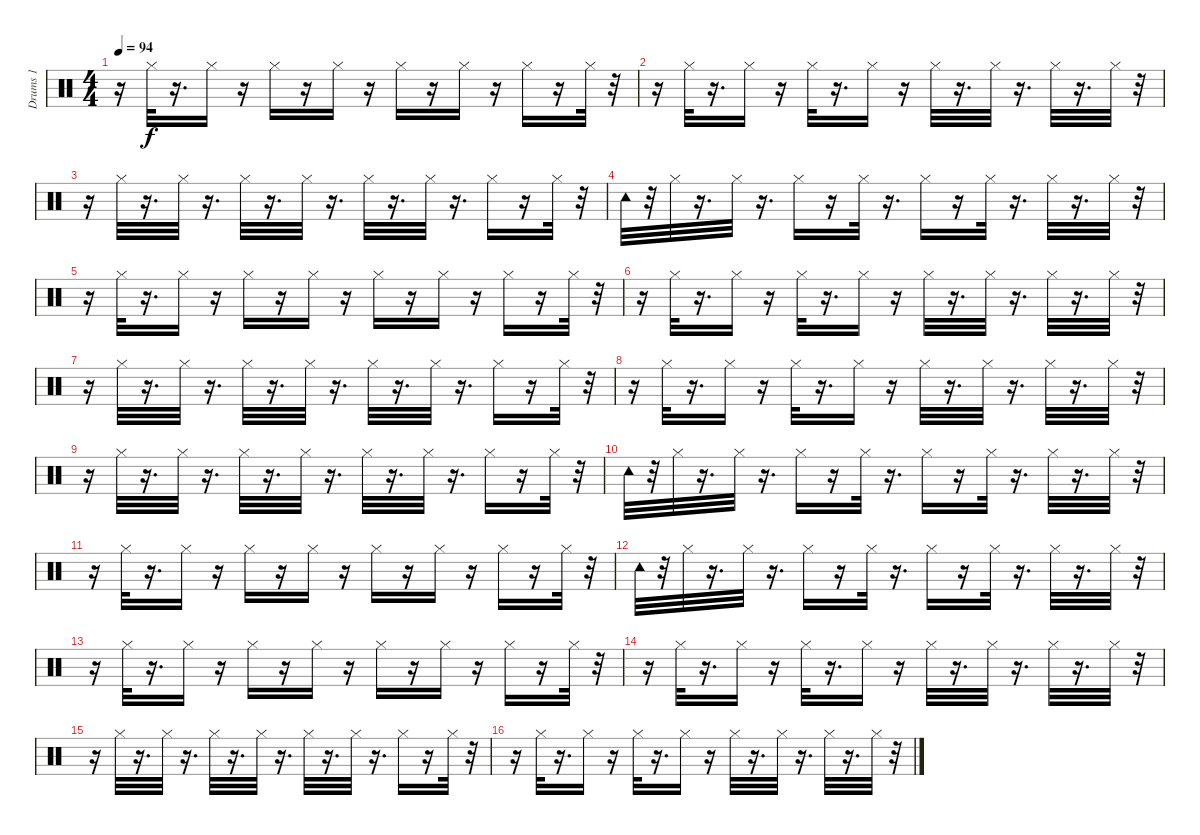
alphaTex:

\track ("Drums 1 " "Drums 1 ") {instrument percussion}
\staff {score}
\articulation defaults
\ts (4 4)
\tempo 94
\clef neutral
\ks c
r.16{dy f} "Hi-Hat (closed)".32 r.16{d} "Hi-Hat (closed)".16 r.16 "Hi-Hat (closed)".16 r.16 "Hi-Hat (closed)".16 r.16 "Hi-Hat (closed)".16 r.16 "Hi-Hat (closed)".16 r.16 "Hi-Hat (closed)".16 r.16 "Hi-Hat (closed)".32 r.32 |
r.16 "Hi-Hat (closed)".32 r.16{d} "Hi-Hat (closed)".16 r.16 "Hi-Hat (closed)".32 r.16{d} "Hi-Hat (closed)".16 r.16 "Hi-Hat (closed)".32 r.16{d} "Hi-Hat (closed)".32 r.16{d} "Hi-Hat (closed)".32 r.16{d} "Hi-Hat (closed)".32 r.32 |
r.16 "Hi-Hat (closed)".32 r.16{d} "Hi-Hat (closed)".32 r.16{d} "Hi-Hat (closed)".32 r.16{d} "Hi-Hat (closed)".32 r.16{d} "Hi-Hat (closed)".32 r.16{d} "Hi-Hat (closed)".32 r.16{d} "Hi-Hat (closed)".16 r.16 "Hi-Hat (closed)".32 r.32 |
"Tambourine (hit)".32 r.32 "Hi-Hat (closed)".32 r.16{d} "Hi-Hat (closed)".32 r.16{d} "Hi-Hat (closed)".16 r.16 "Hi-Hat (closed)".32 r.16{d} "Hi-Hat (closed)".16 r.16 "Hi-Hat (closed)".32 r.16{d} "Hi-Hat (closed)".32 r.16{d} "Hi-Hat (closed)".32 r.32 |
r.16 "Hi-Hat (closed)".32 r.16{d} "Hi-Hat (closed)".16 r.16 "Hi-Hat (closed)".16 r.16 "Hi-Hat (closed)".16 r.16 "Hi-Hat (closed)".16 r.16 "Hi-Hat (closed)".16 r.16 "Hi-Hat (closed)".16 r.16 "Hi-Hat (closed)".32 r.32 |
r.16 "Hi-Hat (closed)".32 r.16{d} "Hi-Hat (closed)".16 r.16 "Hi-Hat (closed)".32 r.16{d} "Hi-Hat (closed)".16 r.16 "Hi-Hat (closed)".32 r.16{d} "Hi-Hat (closed)".32 r.16{d} "Hi-Hat (closed)".32 r.16{d} "Hi-Hat (closed)".32 r.32 |
r.16 "Hi-Hat (closed)".32 r.16{d} "Hi-Hat (closed)".32 r.16{d} "Hi-Hat (closed)".32 r.16{d} "Hi-Hat (closed)".32 r.16{d} "Hi-Hat (closed)".32 r.16{d} "Hi-Hat (closed)".32 r.16{d} "Hi-Hat (closed)".16 r.16 "Hi-Hat (closed)".32 r.32 |
r.16 "Hi-Hat (closed)".32 r.16{d} "Hi-Hat (closed)".16 r.16 "Hi-Hat (closed)".32 r.16{d} "Hi-Hat (closed)".16 r.16 "Hi-Hat (closed)".32 r.16{d} "Hi-Hat (closed)".32 r.16{d} "Hi-Hat (closed)".32 r.16{d} "Hi-Hat (closed)".32 r.32 |
r.16 "Hi-Hat (closed)".32 r.16{d} "Hi-Hat (closed)".32 r.16{d} "Hi-Hat (closed)".32 r.16{d} "Hi-Hat (closed)".32 r.16{d} "Hi-Hat (closed)".32 r.16{d} "Hi-Hat (closed)".32 r.16{d} "Hi-Hat (closed)".16 r.16 "Hi-Hat (closed)".32 r.32 |
"Tambourine (hit)".32 r.32 "Hi-Hat (closed)".32 r.16{d} "Hi-Hat (closed)".32 r.16{d} "Hi-Hat (closed)".16 r.16 "Hi-Hat (closed)".32 r.16{d} "Hi-Hat (closed)".16 r.16 "Hi-Hat (closed)".32 r.16{d} "Hi-Hat (closed)".32 r.16{d} "Hi-Hat (closed)".32 r.32 |
r.16 "Hi-Hat (closed)".32 r.16{d} "Hi-Hat (closed)".16 r.16 "Hi-Hat (closed)".16 r.16 "Hi-Hat (closed)".16 r.16 "Hi-Hat (closed)".16 r.16 "Hi-Hat (closed)".16 r.16 "Hi-Hat (closed)".16 r.16 "Hi-Hat (closed)".32 r.32 |
"Tambourine (hit)".32 r.32 "Hi-Hat (closed)".32 r.16{d} "Hi-Hat (closed)".32 r.16{d} "Hi-Hat (closed)".16 r.16 "Hi-Hat (closed)".32 r.16{d} "Hi-Hat (closed)".16 r.16 "Hi-Hat (closed)".32 r.16{d} "Hi-Hat (closed)".32 r.16{d} "Hi-Hat (closed)".32 r.32 |
r.16 "Hi-Hat (closed)".32 r.16{d} "Hi-Hat (closed)".16 r.16 "Hi-Hat (closed)".16 r.16 "Hi-Hat (closed)".16 r.16 "Hi-Hat (closed)".16 r.16 "Hi-Hat (closed)".16 r.16 "Hi-Hat (closed)".16 r.16 "Hi-Hat (closed)".32 r.32 |
r.16 "Hi-Hat (closed)".32 r.16{d} "Hi-Hat (closed)".16 r.16 "Hi-Hat (closed)".32 r.16{d} "Hi-Hat (closed)".16 r.16 "Hi-Hat (closed)".32 r.16{d} "Hi-Hat (closed)".32 r.16{d} "Hi-Hat (closed)".32 r.16{d} "Hi-Hat (closed)".32 r.32 |
r.16 "Hi-Hat (closed)".32 r.16{d} "Hi-Hat (closed)".32 r.16{d} "Hi-Hat (closed)".32 r.16{d} "Hi-Hat (closed)".32 r.16{d} "Hi-Hat (closed)".32 r.16{d} "Hi-Hat (closed)".32 r.16{d} "Hi-Hat (closed)".16 r.16 "Hi-Hat (closed)".32 r.32 |
r.16 "Hi-Hat (closed)".32 r.16{d} "Hi-Hat (closed)".16 r.16 "Hi-Hat (closed)".32 r.16{d} "Hi-Hat (closed)".16 r.16 "Hi-Hat (closed)".32 r.16{d} "Hi-Hat (closed)".32 r.16{d} "Hi-Hat (closed)".32 r.16{d} "Hi-Hat (closed)".32 r.32
